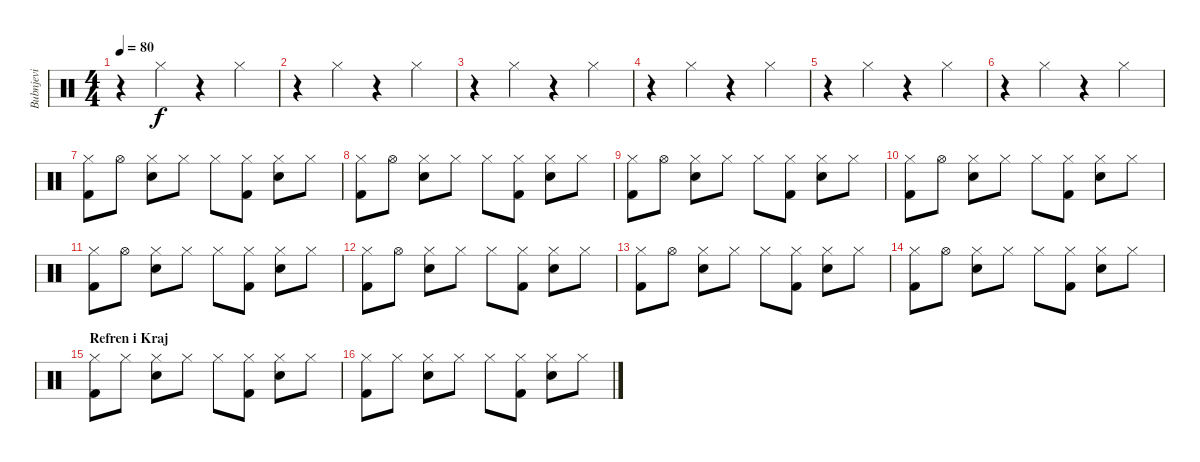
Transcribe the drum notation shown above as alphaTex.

\track ("Bubnjevi" "Bubnjevi") {instrument percussion}
\staff {score}
\articulation defaults
\ts (4 4)
\tempo 80
\clef neutral
\ks c
r.4{dy f} "Hi-Hat (closed)".4 r.4 "Hi-Hat (closed)".4 |
r.4 "Hi-Hat (closed)".4 r.4 "Hi-Hat (closed)".4 |
r.4 "Hi-Hat (closed)".4 r.4 "Hi-Hat (closed)".4 |
r.4 "Hi-Hat (closed)".4 r.4 "Hi-Hat (closed)".4 |
r.4 "Hi-Hat (closed)".4 r.4 "Hi-Hat (closed)".4 |
r.4 "Hi-Hat (closed)".4 r.4 "Hi-Hat (closed)".4 |
("Hi-Hat (closed)" "Kick (hit) 2").8 "Hi-Hat (open)".8 ("Hi-Hat (closed)" "Electric Snare (hit)").8 "Hi-Hat (closed)".8 "Hi-Hat (closed)".8 ("Hi-Hat (closed)" "Kick (hit) 2").8 ("Hi-Hat (closed)" "Electric Snare (hit)").8 "Hi-Hat (closed)".8 |
("Hi-Hat (closed)" "Kick (hit) 2").8 "Hi-Hat (open)".8 ("Hi-Hat (closed)" "Electric Snare (hit)").8 "Hi-Hat (closed)".8 "Hi-Hat (closed)".8 ("Hi-Hat (closed)" "Kick (hit) 2").8 ("Hi-Hat (closed)" "Electric Snare (hit)").8 "Hi-Hat (closed)".8 |
("Hi-Hat (closed)" "Kick (hit) 2").8 "Hi-Hat (open)".8 ("Hi-Hat (closed)" "Electric Snare (hit)").8 "Hi-Hat (closed)".8 "Hi-Hat (closed)".8 ("Hi-Hat (closed)" "Kick (hit) 2").8 ("Hi-Hat (closed)" "Electric Snare (hit)").8 "Hi-Hat (closed)".8 |
("Hi-Hat (closed)" "Kick (hit) 2").8 "Hi-Hat (open)".8 ("Hi-Hat (closed)" "Electric Snare (hit)").8 "Hi-Hat (closed)".8 "Hi-Hat (closed)".8 ("Hi-Hat (closed)" "Kick (hit) 2").8 ("Hi-Hat (closed)" "Electric Snare (hit)").8 "Hi-Hat (closed)".8 |
("Hi-Hat (closed)" "Kick (hit) 2").8 "Hi-Hat (open)".8 ("Hi-Hat (closed)" "Electric Snare (hit)").8 "Hi-Hat (closed)".8 "Hi-Hat (closed)".8 ("Hi-Hat (closed)" "Kick (hit) 2").8 ("Hi-Hat (closed)" "Electric Snare (hit)").8 "Hi-Hat (closed)".8 |
("Hi-Hat (closed)" "Kick (hit) 2").8 "Hi-Hat (open)".8 ("Hi-Hat (closed)" "Electric Snare (hit)").8 "Hi-Hat (closed)".8 "Hi-Hat (closed)".8 ("Hi-Hat (closed)" "Kick (hit) 2").8 ("Hi-Hat (closed)" "Electric Snare (hit)").8 "Hi-Hat (closed)".8 |
("Hi-Hat (closed)" "Kick (hit) 2").8 "Hi-Hat (open)".8 ("Hi-Hat (closed)" "Electric Snare (hit)").8 "Hi-Hat (closed)".8 "Hi-Hat (closed)".8 ("Hi-Hat (closed)" "Kick (hit) 2").8 ("Hi-Hat (closed)" "Electric Snare (hit)").8 "Hi-Hat (closed)".8 |
("Hi-Hat (closed)" "Kick (hit) 2").8 "Hi-Hat (open)".8 ("Hi-Hat (closed)" "Electric Snare (hit)").8 "Hi-Hat (closed)".8 "Hi-Hat (closed)".8 ("Hi-Hat (closed)" "Kick (hit) 2").8 ("Hi-Hat (closed)" "Electric Snare (hit)").8 "Hi-Hat (closed)".8 |
\section ("" "Refren i Kraj")
("Hi-Hat (closed)" "Kick (hit) 2").8 "Hi-Hat (closed)".8 ("Hi-Hat (closed)" "Electric Snare (hit)").8 "Hi-Hat (closed)".8 "Hi-Hat (closed)".8 ("Hi-Hat (closed)" "Kick (hit) 2").8 ("Hi-Hat (closed)" "Electric Snare (hit)").8 "Hi-Hat (closed)".8 |
("Hi-Hat (closed)" "Kick (hit) 2").8 "Hi-Hat (closed)".8 ("Hi-Hat (closed)" "Electric Snare (hit)").8 "Hi-Hat (closed)".8 "Hi-Hat (closed)".8 ("Hi-Hat (closed)" "Kick (hit) 2").8 ("Hi-Hat (closed)" "Electric Snare (hit)").8 "Hi-Hat (closed)".8
